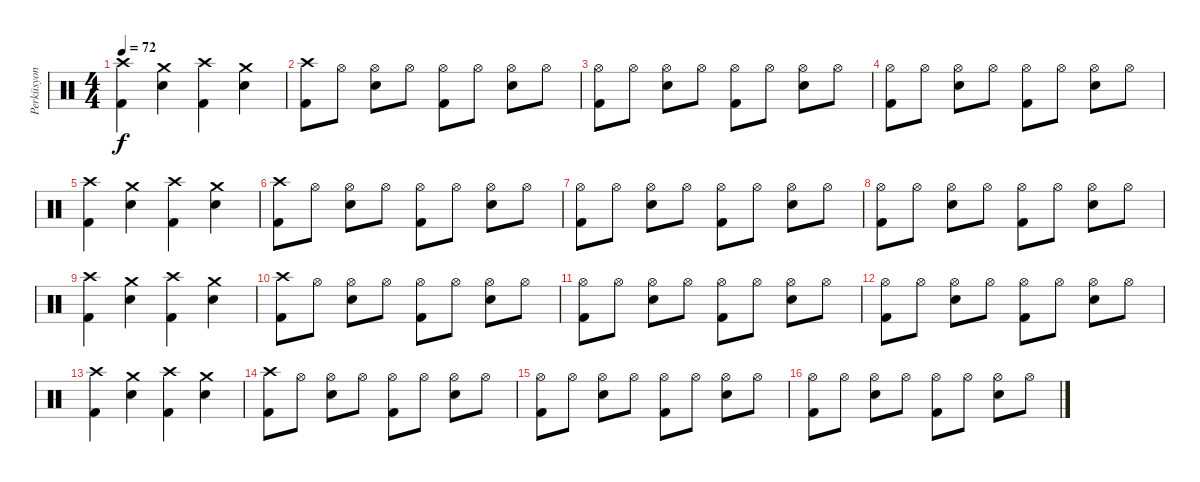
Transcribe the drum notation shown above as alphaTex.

\track ("Perküsyon" "Perküsyon") {instrument percussion}
\staff {score}
\articulation defaults
\ts (4 4)
\tempo 72
\clef neutral
\ks c
("Crash high (hit)" "Kick (hit) 2").4{dy f} ("Crash medium (hit)" "Electric Snare (hit)").4 ("Crash high (hit)" "Kick (hit) 2").4 ("Crash medium (hit)" "Electric Snare (hit)").4 |
("Crash high (hit)" "Kick (hit) 2").8 "Hi-Hat (open)".8 ("Hi-Hat (open)" "Electric Snare (hit)").8 "Hi-Hat (open)".8 ("Hi-Hat (open)" "Kick (hit) 2").8 "Hi-Hat (open)".8 ("Hi-Hat (open)" "Electric Snare (hit)").8 "Hi-Hat (open)".8 |
("Hi-Hat (open)" "Kick (hit) 2").8 "Hi-Hat (open)".8 ("Hi-Hat (open)" "Electric Snare (hit)").8 "Hi-Hat (open)".8 ("Hi-Hat (open)" "Kick (hit) 2").8 "Hi-Hat (open)".8 ("Hi-Hat (open)" "Electric Snare (hit)").8 "Hi-Hat (open)".8 |
("Hi-Hat (open)" "Kick (hit) 2").8 "Hi-Hat (open)".8 ("Hi-Hat (open)" "Electric Snare (hit)").8 "Hi-Hat (open)".8 ("Hi-Hat (open)" "Kick (hit) 2").8 "Hi-Hat (open)".8 ("Hi-Hat (open)" "Electric Snare (hit)").8 "Hi-Hat (open)".8 |
("Crash high (hit)" "Kick (hit) 2").4 ("Crash medium (hit)" "Electric Snare (hit)").4 ("Crash high (hit)" "Kick (hit) 2").4 ("Crash medium (hit)" "Electric Snare (hit)").4 |
("Crash high (hit)" "Kick (hit) 2").8 "Hi-Hat (open)".8 ("Hi-Hat (open)" "Electric Snare (hit)").8 "Hi-Hat (open)".8 ("Hi-Hat (open)" "Kick (hit) 2").8 "Hi-Hat (open)".8 ("Hi-Hat (open)" "Electric Snare (hit)").8 "Hi-Hat (open)".8 |
("Hi-Hat (open)" "Kick (hit) 2").8 "Hi-Hat (open)".8 ("Hi-Hat (open)" "Electric Snare (hit)").8 "Hi-Hat (open)".8 ("Hi-Hat (open)" "Kick (hit) 2").8 "Hi-Hat (open)".8 ("Hi-Hat (open)" "Electric Snare (hit)").8 "Hi-Hat (open)".8 |
("Hi-Hat (open)" "Kick (hit) 2").8 "Hi-Hat (open)".8 ("Hi-Hat (open)" "Electric Snare (hit)").8 "Hi-Hat (open)".8 ("Hi-Hat (open)" "Kick (hit) 2").8 "Hi-Hat (open)".8 ("Hi-Hat (open)" "Electric Snare (hit)").8 "Hi-Hat (open)".8 |
("Crash high (hit)" "Kick (hit) 2").4 ("Crash medium (hit)" "Electric Snare (hit)").4 ("Crash high (hit)" "Kick (hit) 2").4 ("Crash medium (hit)" "Electric Snare (hit)").4 |
("Crash high (hit)" "Kick (hit) 2").8 "Hi-Hat (open)".8 ("Hi-Hat (open)" "Electric Snare (hit)").8 "Hi-Hat (open)".8 ("Hi-Hat (open)" "Kick (hit) 2").8 "Hi-Hat (open)".8 ("Hi-Hat (open)" "Electric Snare (hit)").8 "Hi-Hat (open)".8 |
("Hi-Hat (open)" "Kick (hit) 2").8 "Hi-Hat (open)".8 ("Hi-Hat (open)" "Electric Snare (hit)").8 "Hi-Hat (open)".8 ("Hi-Hat (open)" "Kick (hit) 2").8 "Hi-Hat (open)".8 ("Hi-Hat (open)" "Electric Snare (hit)").8 "Hi-Hat (open)".8 |
("Hi-Hat (open)" "Kick (hit) 2").8 "Hi-Hat (open)".8 ("Hi-Hat (open)" "Electric Snare (hit)").8 "Hi-Hat (open)".8 ("Hi-Hat (open)" "Kick (hit) 2").8 "Hi-Hat (open)".8 ("Hi-Hat (open)" "Electric Snare (hit)").8 "Hi-Hat (open)".8 |
("Crash high (hit)" "Kick (hit) 2").4 ("Crash medium (hit)" "Electric Snare (hit)").4 ("Crash high (hit)" "Kick (hit) 2").4 ("Crash medium (hit)" "Electric Snare (hit)").4 |
("Crash high (hit)" "Kick (hit) 2").8 "Hi-Hat (open)".8 ("Hi-Hat (open)" "Electric Snare (hit)").8 "Hi-Hat (open)".8 ("Hi-Hat (open)" "Kick (hit) 2").8 "Hi-Hat (open)".8 ("Hi-Hat (open)" "Electric Snare (hit)").8 "Hi-Hat (open)".8 |
("Hi-Hat (open)" "Kick (hit) 2").8 "Hi-Hat (open)".8 ("Hi-Hat (open)" "Electric Snare (hit)").8 "Hi-Hat (open)".8 ("Hi-Hat (open)" "Kick (hit) 2").8 "Hi-Hat (open)".8 ("Hi-Hat (open)" "Electric Snare (hit)").8 "Hi-Hat (open)".8 |
("Hi-Hat (open)" "Kick (hit) 2").8 "Hi-Hat (open)".8 ("Hi-Hat (open)" "Electric Snare (hit)").8 "Hi-Hat (open)".8 ("Hi-Hat (open)" "Kick (hit) 2").8 "Hi-Hat (open)".8 ("Hi-Hat (open)" "Electric Snare (hit)").8 "Hi-Hat (open)".8
